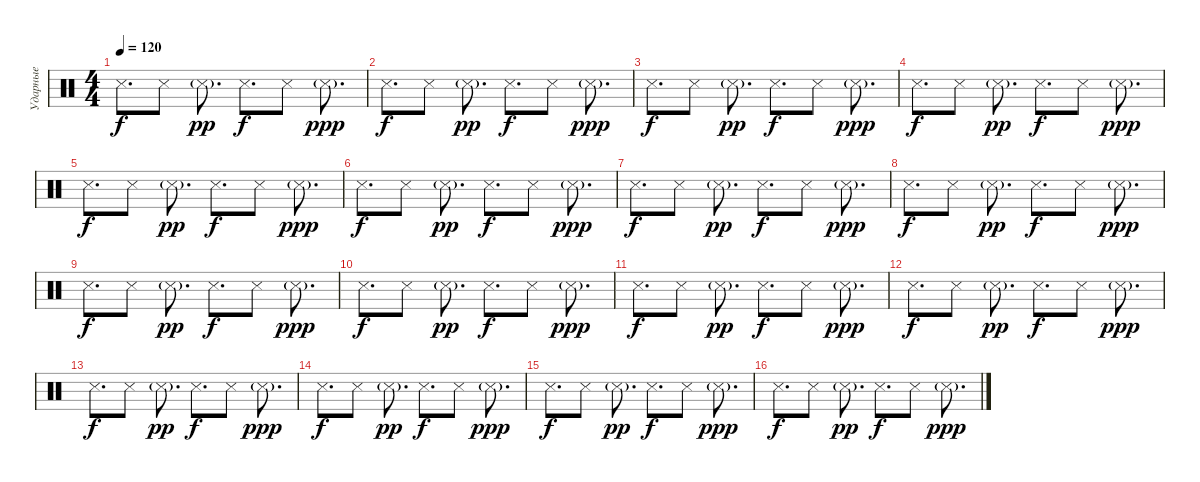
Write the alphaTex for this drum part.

\track ("Ударные" "Ударные") {instrument percussion}
\staff {score}
\articulation defaults
\ts (4 4)
\tempo 120
\clef neutral
\ks c "Snare (side stick) 3".8{d dy f} "Snare (side stick) 3".8 "Snare (side stick) 3"{g}.8{d dy pp} "Snare (side stick) 3".8{d dy f} "Snare (side stick) 3".8 "Snare (side stick) 3"{g}.8{d dy ppp}
|
"Snare (side stick) 3".8{d dy f} "Snare (side stick) 3".8 "Snare (side stick) 3"{g}.8{d dy pp} "Snare (side stick) 3".8{d dy f} "Snare (side stick) 3".8 "Snare (side stick) 3"{g}.8{d dy ppp} |
"Snare (side stick) 3".8{d dy f} "Snare (side stick) 3".8 "Snare (side stick) 3"{g}.8{d dy pp} "Snare (side stick) 3".8{d dy f} "Snare (side stick) 3".8 "Snare (side stick) 3"{g}.8{d dy ppp} |
"Snare (side stick) 3".8{d dy f} "Snare (side stick) 3".8 "Snare (side stick) 3"{g}.8{d dy pp} "Snare (side stick) 3".8{d dy f} "Snare (side stick) 3".8 "Snare (side stick) 3"{g}.8{d dy ppp} |
"Snare (side stick) 3".8{d dy f} "Snare (side stick) 3".8 "Snare (side stick) 3"{g}.8{d dy pp} "Snare (side stick) 3".8{d dy f} "Snare (side stick) 3".8 "Snare (side stick) 3"{g}.8{d dy ppp} |
"Snare (side stick) 3".8{d dy f} "Snare (side stick) 3".8 "Snare (side stick) 3"{g}.8{d dy pp} "Snare (side stick) 3".8{d dy f} "Snare (side stick) 3".8 "Snare (side stick) 3"{g}.8{d dy ppp} |
"Snare (side stick) 3".8{d dy f} "Snare (side stick) 3".8 "Snare (side stick) 3"{g}.8{d dy pp} "Snare (side stick) 3".8{d dy f} "Snare (side stick) 3".8 "Snare (side stick) 3"{g}.8{d dy ppp} |
"Snare (side stick) 3".8{d dy f} "Snare (side stick) 3".8 "Snare (side stick) 3"{g}.8{d dy pp} "Snare (side stick) 3".8{d dy f} "Snare (side stick) 3".8 "Snare (side stick) 3"{g}.8{d dy ppp} |
"Snare (side stick) 3".8{d dy f} "Snare (side stick) 3".8 "Snare (side stick) 3"{g}.8{d dy pp} "Snare (side stick) 3".8{d dy f} "Snare (side stick) 3".8 "Snare (side stick) 3"{g}.8{d dy ppp} |
"Snare (side stick) 3".8{d dy f} "Snare (side stick) 3".8 "Snare (side stick) 3"{g}.8{d dy pp} "Snare (side stick) 3".8{d dy f} "Snare (side stick) 3".8 "Snare (side stick) 3"{g}.8{d dy ppp} |
"Snare (side stick) 3".8{d dy f} "Snare (side stick) 3".8 "Snare (side stick) 3"{g}.8{d dy pp} "Snare (side stick) 3".8{d dy f} "Snare (side stick) 3".8 "Snare (side stick) 3"{g}.8{d dy ppp} |
"Snare (side stick) 3".8{d dy f} "Snare (side stick) 3".8 "Snare (side stick) 3"{g}.8{d dy pp} "Snare (side stick) 3".8{d dy f} "Snare (side stick) 3".8 "Snare (side stick) 3"{g}.8{d dy ppp} |
"Snare (side stick) 3".8{d dy f} "Snare (side stick) 3".8 "Snare (side stick) 3"{g}.8{d dy pp} "Snare (side stick) 3".8{d dy f} "Snare (side stick) 3".8 "Snare (side stick) 3"{g}.8{d dy ppp} |
"Snare (side stick) 3".8{d dy f} "Snare (side stick) 3".8 "Snare (side stick) 3"{g}.8{d dy pp} "Snare (side stick) 3".8{d dy f} "Snare (side stick) 3".8 "Snare (side stick) 3"{g}.8{d dy ppp} |
"Snare (side stick) 3".8{d dy f} "Snare (side stick) 3".8 "Snare (side stick) 3"{g}.8{d dy pp} "Snare (side stick) 3".8{d dy f} "Snare (side stick) 3".8 "Snare (side stick) 3"{g}.8{d dy ppp} |
"Snare (side stick) 3".8{d dy f} "Snare (side stick) 3".8 "Snare (side stick) 3"{g}.8{d dy pp} "Snare (side stick) 3".8{d dy f} "Snare (side stick) 3".8 "Snare (side stick) 3"{g}.8{d dy ppp}
